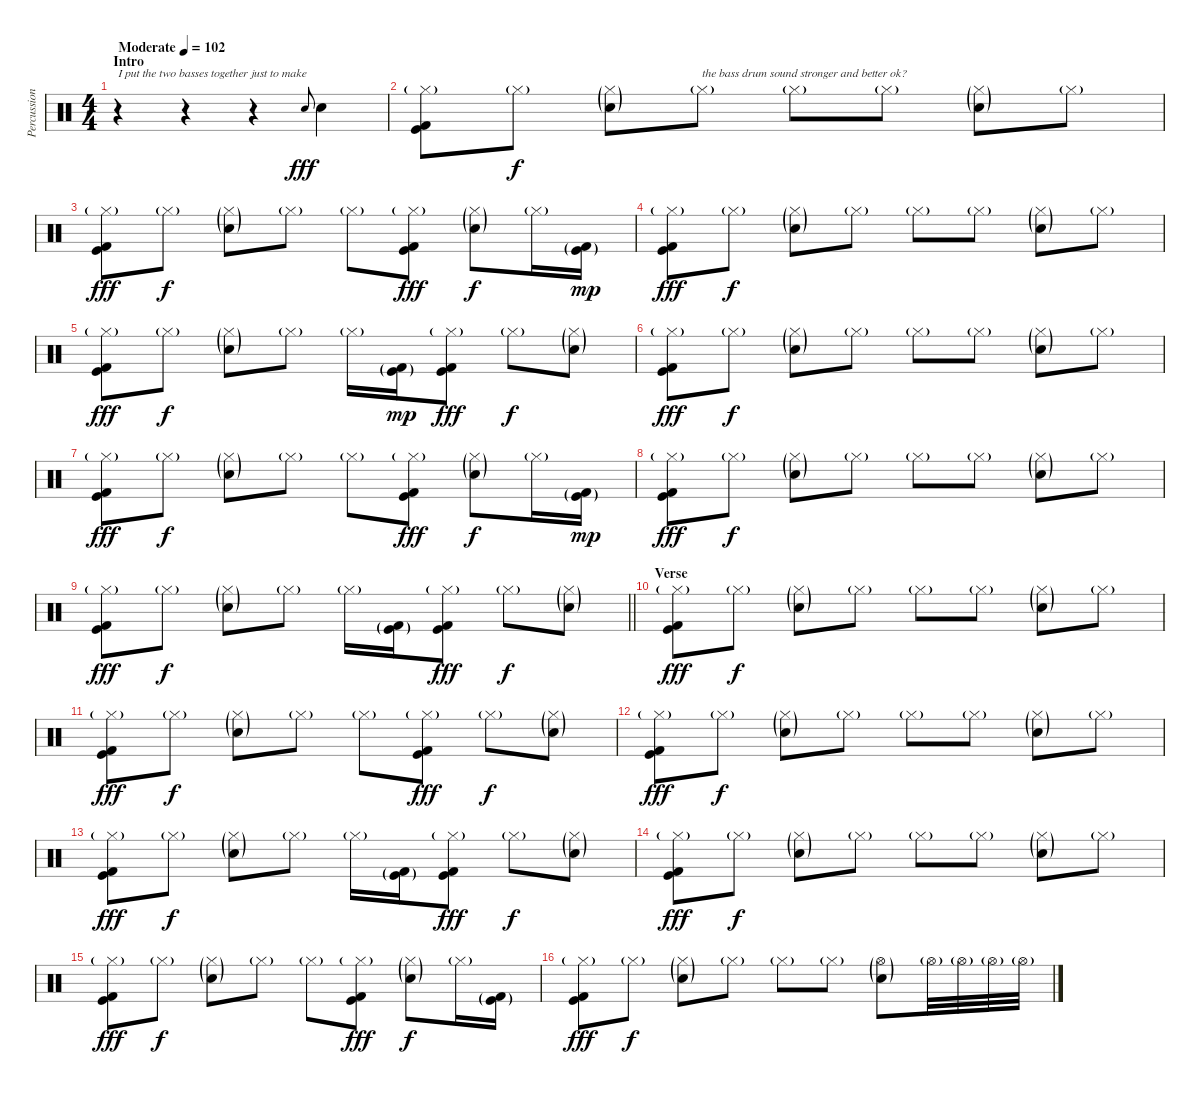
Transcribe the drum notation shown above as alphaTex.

\track ("Percussion" "Percussion") {instrument percussion}
\staff {score}
\articulation defaults
\ts (4 4)
\section ("" "Intro")
\tempo (102 "Moderate")
\clef neutral
\ks c
r.4{txt "I put the two basses together just to make" dy fff} r.4 r.4 "Electric Snare (hit)".8{gr onbeat} "Electric Snare (hit)".4 |
("Hi-Hat (closed)"{g} "Kick (hit)" "Kick (hit) 2").8 "Hi-Hat (closed)"{g}.8{dy f} ("Hi-Hat (closed)"{g} "Electric Snare (hit)"{g}).8 "Hi-Hat (closed)"{g}.8{txt "the bass drum sound stronger and better ok?"} "Hi-Hat (closed)"{g}.8 "Hi-Hat (closed)"{g}.8 ("Hi-Hat (closed)"{g} "Electric Snare (hit)"{g}).8 "Hi-Hat (closed)"{g}.8 |
("Hi-Hat (closed)"{g} "Kick (hit)" "Kick (hit) 2").8{dy fff} "Hi-Hat (closed)"{g}.8{dy f} ("Hi-Hat (closed)"{g} "Electric Snare (hit)"{g}).8 "Hi-Hat (closed)"{g}.8 "Hi-Hat (closed)"{g}.8 ("Hi-Hat (closed)"{g} "Kick (hit)" "Kick (hit) 2").8{dy fff} ("Hi-Hat (closed)"{g} "Electric Snare (hit)"{g}).8{dy f} "Hi-Hat (closed)"{g}.16 ("Kick (hit)"{g} "Kick (hit) 2"{g}).16{dy mp} |
("Hi-Hat (closed)"{g} "Kick (hit)" "Kick (hit) 2").8{dy fff} "Hi-Hat (closed)"{g}.8{dy f} ("Hi-Hat (closed)"{g} "Electric Snare (hit)"{g}).8 "Hi-Hat (closed)"{g}.8 "Hi-Hat (closed)"{g}.8 "Hi-Hat (closed)"{g}.8 ("Hi-Hat (closed)"{g} "Electric Snare (hit)"{g}).8 "Hi-Hat (closed)"{g}.8 |
("Hi-Hat (closed)"{g} "Kick (hit)" "Kick (hit) 2").8{dy fff} "Hi-Hat (closed)"{g}.8{dy f} ("Hi-Hat (closed)"{g} "Electric Snare (hit)"{g}).8 "Hi-Hat (closed)"{g}.8 "Hi-Hat (closed)"{g}.16 ("Kick (hit)"{g} "Kick (hit) 2"{g}).16{dy mp} ("Hi-Hat (closed)"{g} "Kick (hit)" "Kick (hit) 2").8{dy fff} "Hi-Hat (closed)"{g}.8{dy f} ("Hi-Hat (closed)"{g} "Electric Snare (hit)"{g}).8 |
("Hi-Hat (closed)"{g} "Kick (hit)" "Kick (hit) 2").8{dy fff} "Hi-Hat (closed)"{g}.8{dy f} ("Hi-Hat (closed)"{g} "Electric Snare (hit)"{g}).8 "Hi-Hat (closed)"{g}.8 "Hi-Hat (closed)"{g}.8 "Hi-Hat (closed)"{g}.8 ("Hi-Hat (closed)"{g} "Electric Snare (hit)"{g}).8 "Hi-Hat (closed)"{g}.8 |
("Hi-Hat (closed)"{g} "Kick (hit)" "Kick (hit) 2").8{dy fff} "Hi-Hat (closed)"{g}.8{dy f} ("Hi-Hat (closed)"{g} "Electric Snare (hit)"{g}).8 "Hi-Hat (closed)"{g}.8 "Hi-Hat (closed)"{g}.8 ("Hi-Hat (closed)"{g} "Kick (hit)" "Kick (hit) 2").8{dy fff} ("Hi-Hat (closed)"{g} "Electric Snare (hit)"{g}).8{dy f} "Hi-Hat (closed)"{g}.16 ("Kick (hit)"{g} "Kick (hit) 2"{g}).16{dy mp} |
("Hi-Hat (closed)"{g} "Kick (hit)" "Kick (hit) 2").8{dy fff} "Hi-Hat (closed)"{g}.8{dy f} ("Hi-Hat (closed)"{g} "Electric Snare (hit)"{g}).8 "Hi-Hat (closed)"{g}.8 "Hi-Hat (closed)"{g}.8 "Hi-Hat (closed)"{g}.8 ("Hi-Hat (closed)"{g} "Electric Snare (hit)"{g}).8 "Hi-Hat (closed)"{g}.8 |
\barLineRight lightlight
("Hi-Hat (closed)"{g} "Kick (hit)" "Kick (hit) 2").8{dy fff} "Hi-Hat (closed)"{g}.8{dy f} ("Hi-Hat (closed)"{g} "Electric Snare (hit)"{g}).8 "Hi-Hat (closed)"{g}.8 "Hi-Hat (closed)"{g}.16 ("Kick (hit)"{g} "Kick (hit) 2"{g}).16 ("Hi-Hat (closed)"{g} "Kick (hit)" "Kick (hit) 2").8{dy fff} "Hi-Hat (closed)"{g}.8{dy f} ("Hi-Hat (closed)"{g} "Electric Snare (hit)"{g}).8 |
\section ("" "Verse")
("Hi-Hat (closed)"{g} "Kick (hit)" "Kick (hit) 2").8{dy fff} "Hi-Hat (closed)"{g}.8{dy f} ("Hi-Hat (closed)"{g} "Electric Snare (hit)"{g}).8 "Hi-Hat (closed)"{g}.8 "Hi-Hat (closed)"{g}.8 "Hi-Hat (closed)"{g}.8 ("Hi-Hat (closed)"{g} "Electric Snare (hit)"{g}).8 "Hi-Hat (closed)"{g}.8 |
("Hi-Hat (closed)"{g} "Kick (hit)" "Kick (hit) 2").8{dy fff} "Hi-Hat (closed)"{g}.8{dy f} ("Hi-Hat (closed)"{g} "Electric Snare (hit)"{g}).8 "Hi-Hat (closed)"{g}.8 "Hi-Hat (closed)"{g}.8 ("Hi-Hat (closed)"{g} "Kick (hit)" "Kick (hit) 2").8{dy fff} "Hi-Hat (closed)"{g}.8{dy f} ("Hi-Hat (closed)"{g} "Electric Snare (hit)"{g}).8 |
("Hi-Hat (closed)"{g} "Kick (hit)" "Kick (hit) 2").8{dy fff} "Hi-Hat (closed)"{g}.8{dy f} ("Hi-Hat (closed)"{g} "Electric Snare (hit)"{g}).8 "Hi-Hat (closed)"{g}.8 "Hi-Hat (closed)"{g}.8 "Hi-Hat (closed)"{g}.8 ("Hi-Hat (closed)"{g} "Electric Snare (hit)"{g}).8 "Hi-Hat (closed)"{g}.8 |
("Hi-Hat (closed)"{g} "Kick (hit)" "Kick (hit) 2").8{dy fff} "Hi-Hat (closed)"{g}.8{dy f} ("Hi-Hat (closed)"{g} "Electric Snare (hit)"{g}).8 "Hi-Hat (closed)"{g}.8 "Hi-Hat (closed)"{g}.16 ("Kick (hit)"{g} "Kick (hit) 2"{g}).16 ("Hi-Hat (closed)"{g} "Kick (hit)" "Kick (hit) 2").8{dy fff} "Hi-Hat (closed)"{g}.8{dy f} ("Hi-Hat (closed)"{g} "Electric Snare (hit)"{g}).8 |
("Hi-Hat (closed)"{g} "Kick (hit)" "Kick (hit) 2").8{dy fff} "Hi-Hat (closed)"{g}.8{dy f} ("Hi-Hat (closed)"{g} "Electric Snare (hit)"{g}).8 "Hi-Hat (closed)"{g}.8 "Hi-Hat (closed)"{g}.8 "Hi-Hat (closed)"{g}.8 ("Hi-Hat (closed)"{g} "Electric Snare (hit)"{g}).8 "Hi-Hat (closed)"{g}.8 |
("Hi-Hat (closed)"{g} "Kick (hit)" "Kick (hit) 2").8{dy fff} "Hi-Hat (closed)"{g}.8{dy f} ("Hi-Hat (closed)"{g} "Electric Snare (hit)"{g}).8 "Hi-Hat (closed)"{g}.8 "Hi-Hat (closed)"{g}.8 ("Hi-Hat (closed)"{g} "Kick (hit)" "Kick (hit) 2").8{dy fff} ("Hi-Hat (closed)"{g} "Electric Snare (hit)"{g}).8{dy f} "Hi-Hat (closed)"{g}.16 ("Kick (hit)"{g} "Kick (hit) 2"{g}).16 |
("Hi-Hat (closed)"{g} "Kick (hit)" "Kick (hit) 2").8{dy fff} "Hi-Hat (closed)"{g}.8{dy f} ("Hi-Hat (closed)"{g} "Electric Snare (hit)"{g}).8 "Hi-Hat (closed)"{g}.8 "Hi-Hat (closed)"{g}.8 "Hi-Hat (closed)"{g}.8 ("Hi-Hat (open)"{g} "Electric Snare (hit)"{g}).8 "Hi-Hat (open)"{g}.32 "Hi-Hat (open)"{g}.32 "Hi-Hat (open)"{g}.32 "Hi-Hat (open)"{g}.32
